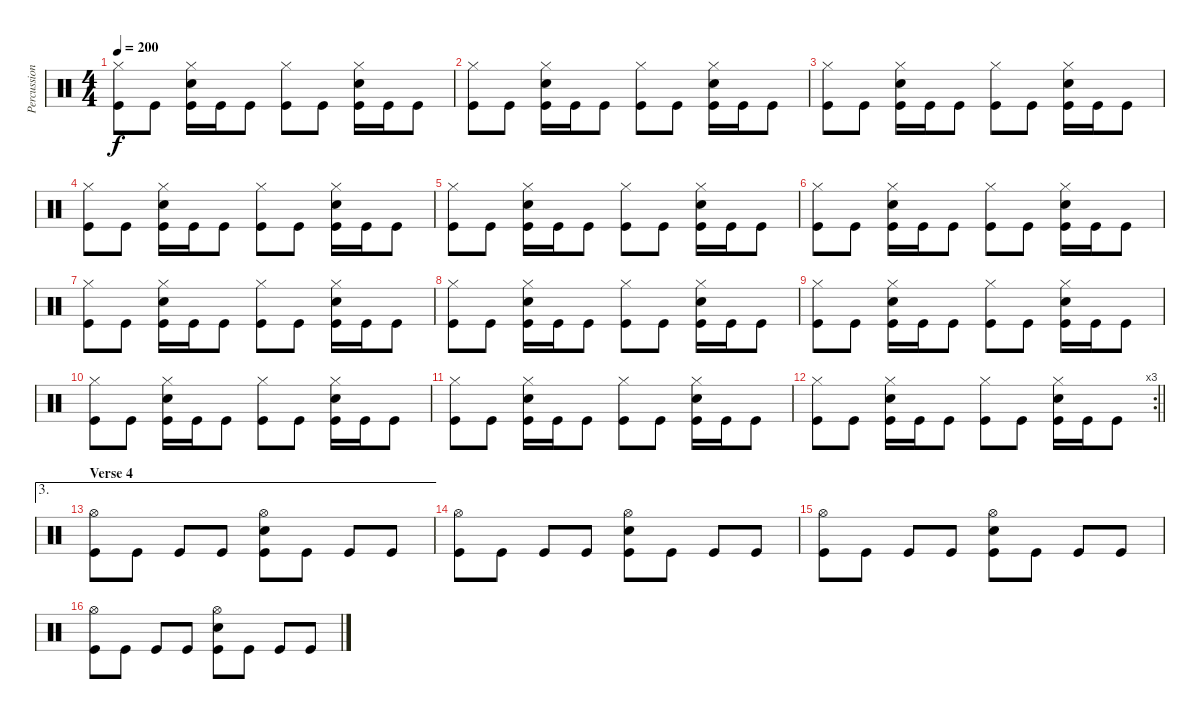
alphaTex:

\track ("Percussion" "Percussion") {instrument percussion}
\staff {score}
\articulation defaults
\ts (4 4)
\tempo 200
\clef neutral
\ks c
("Hi-Hat (closed)" "Kick (hit)").8{dy f} "Kick (hit)".8 ("Snare (hit) 2" "Hi-Hat (closed)" "Kick (hit)").16 "Kick (hit)".16 "Kick (hit)".8 ("Hi-Hat (closed)" "Kick (hit)").8 "Kick (hit)".8 ("Snare (hit) 2" "Hi-Hat (closed)" "Kick (hit)").16 "Kick (hit)".16 "Kick (hit)".8 |
("Hi-Hat (closed)" "Kick (hit)").8 "Kick (hit)".8 ("Snare (hit) 2" "Hi-Hat (closed)" "Kick (hit)").16 "Kick (hit)".16 "Kick (hit)".8 ("Hi-Hat (closed)" "Kick (hit)").8 "Kick (hit)".8 ("Snare (hit) 2" "Hi-Hat (closed)" "Kick (hit)").16 "Kick (hit)".16 "Kick (hit)".8 |
("Hi-Hat (closed)" "Kick (hit)").8 "Kick (hit)".8 ("Snare (hit) 2" "Hi-Hat (closed)" "Kick (hit)").16 "Kick (hit)".16 "Kick (hit)".8 ("Hi-Hat (closed)" "Kick (hit)").8 "Kick (hit)".8 ("Snare (hit) 2" "Hi-Hat (closed)" "Kick (hit)").16 "Kick (hit)".16 "Kick (hit)".8 |
("Hi-Hat (closed)" "Kick (hit)").8 "Kick (hit)".8 ("Snare (hit) 2" "Hi-Hat (closed)" "Kick (hit)").16 "Kick (hit)".16 "Kick (hit)".8 ("Hi-Hat (closed)" "Kick (hit)").8 "Kick (hit)".8 ("Snare (hit) 2" "Hi-Hat (closed)" "Kick (hit)").16 "Kick (hit)".16 "Kick (hit)".8 |
("Hi-Hat (closed)" "Kick (hit)").8 "Kick (hit)".8 ("Snare (hit) 2" "Hi-Hat (closed)" "Kick (hit)").16 "Kick (hit)".16 "Kick (hit)".8 ("Hi-Hat (closed)" "Kick (hit)").8 "Kick (hit)".8 ("Snare (hit) 2" "Hi-Hat (closed)" "Kick (hit)").16 "Kick (hit)".16 "Kick (hit)".8 |
("Hi-Hat (closed)" "Kick (hit)").8 "Kick (hit)".8 ("Snare (hit) 2" "Hi-Hat (closed)" "Kick (hit)").16 "Kick (hit)".16 "Kick (hit)".8 ("Hi-Hat (closed)" "Kick (hit)").8 "Kick (hit)".8 ("Snare (hit) 2" "Hi-Hat (closed)" "Kick (hit)").16 "Kick (hit)".16 "Kick (hit)".8 |
("Hi-Hat (closed)" "Kick (hit)").8 "Kick (hit)".8 ("Snare (hit) 2" "Hi-Hat (closed)" "Kick (hit)").16 "Kick (hit)".16 "Kick (hit)".8 ("Hi-Hat (closed)" "Kick (hit)").8 "Kick (hit)".8 ("Snare (hit) 2" "Hi-Hat (closed)" "Kick (hit)").16 "Kick (hit)".16 "Kick (hit)".8 |
("Hi-Hat (closed)" "Kick (hit)").8 "Kick (hit)".8 ("Snare (hit) 2" "Hi-Hat (closed)" "Kick (hit)").16 "Kick (hit)".16 "Kick (hit)".8 ("Hi-Hat (closed)" "Kick (hit)").8 "Kick (hit)".8 ("Snare (hit) 2" "Hi-Hat (closed)" "Kick (hit)").16 "Kick (hit)".16 "Kick (hit)".8 |
("Hi-Hat (closed)" "Kick (hit)").8 "Kick (hit)".8 ("Snare (hit) 2" "Hi-Hat (closed)" "Kick (hit)").16 "Kick (hit)".16 "Kick (hit)".8 ("Hi-Hat (closed)" "Kick (hit)").8 "Kick (hit)".8 ("Snare (hit) 2" "Hi-Hat (closed)" "Kick (hit)").16 "Kick (hit)".16 "Kick (hit)".8 |
("Hi-Hat (closed)" "Kick (hit)").8 "Kick (hit)".8 ("Snare (hit) 2" "Hi-Hat (closed)" "Kick (hit)").16 "Kick (hit)".16 "Kick (hit)".8 ("Hi-Hat (closed)" "Kick (hit)").8 "Kick (hit)".8 ("Snare (hit) 2" "Hi-Hat (closed)" "Kick (hit)").16 "Kick (hit)".16 "Kick (hit)".8 |
("Hi-Hat (closed)" "Kick (hit)").8 "Kick (hit)".8 ("Snare (hit) 2" "Hi-Hat (closed)" "Kick (hit)").16 "Kick (hit)".16 "Kick (hit)".8 ("Hi-Hat (closed)" "Kick (hit)").8 "Kick (hit)".8 ("Snare (hit) 2" "Hi-Hat (closed)" "Kick (hit)").16 "Kick (hit)".16 "Kick (hit)".8 |
\rc 3
\barLineRight lightlight
("Hi-Hat (closed)" "Kick (hit)").8 "Kick (hit)".8 ("Snare (hit) 2" "Hi-Hat (closed)" "Kick (hit)").16 "Kick (hit)".16 "Kick (hit)".8 ("Hi-Hat (closed)" "Kick (hit)").8 "Kick (hit)".8 ("Snare (hit) 2" "Hi-Hat (closed)" "Kick (hit)").16 "Kick (hit)".16 "Kick (hit)".8 |
\ae 3
\section ("" "Verse 4")
("Hi-Hat (open)" "Kick (hit)").8 "Kick (hit)".8 "Kick (hit)".8 "Kick (hit)".8 ("Snare (hit) 2" "Hi-Hat (open)" "Kick (hit)").8 "Kick (hit)".8 "Kick (hit)".8 "Kick (hit)".8 |
("Hi-Hat (open)" "Kick (hit)").8 "Kick (hit)".8 "Kick (hit)".8 "Kick (hit)".8 ("Snare (hit) 2" "Hi-Hat (open)" "Kick (hit)").8 "Kick (hit)".8 "Kick (hit)".8 "Kick (hit)".8 |
("Hi-Hat (open)" "Kick (hit)").8 "Kick (hit)".8 "Kick (hit)".8 "Kick (hit)".8 ("Snare (hit) 2" "Hi-Hat (open)" "Kick (hit)").8 "Kick (hit)".8 "Kick (hit)".8 "Kick (hit)".8 |
("Hi-Hat (open)" "Kick (hit)").8 "Kick (hit)".8 "Kick (hit)".8 "Kick (hit)".8 ("Snare (hit) 2" "Hi-Hat (open)" "Kick (hit)").8 "Kick (hit)".8 "Kick (hit)".8 "Kick (hit)".8
